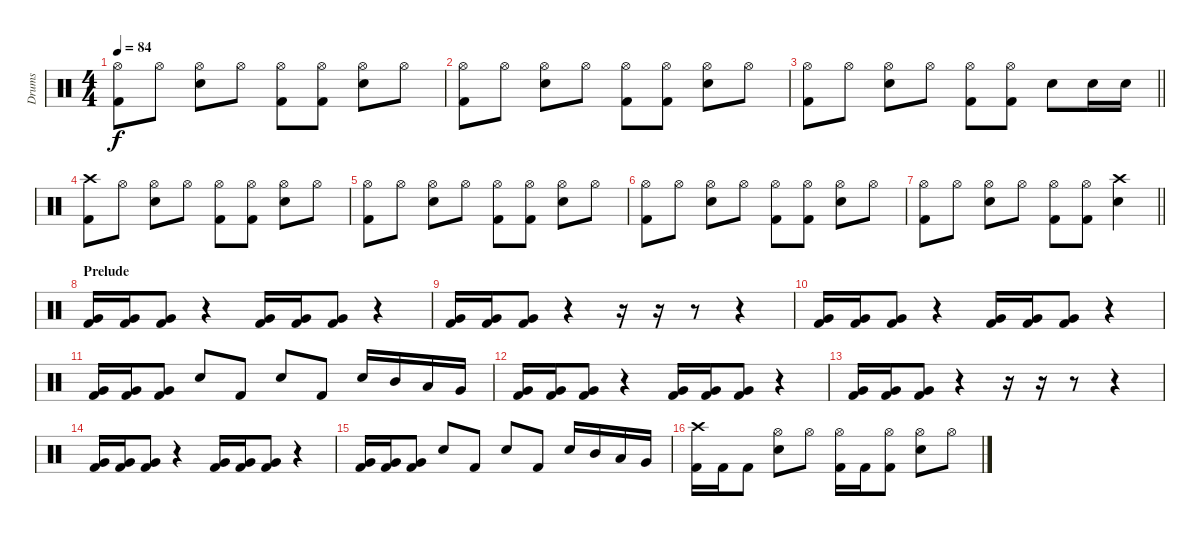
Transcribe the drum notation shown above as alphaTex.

\track ("Drums" "Drums") {instrument percussion}
\staff {score}
\articulation defaults
\ts (4 4)
\tempo 84
\clef neutral
\ks c
("Hi-Hat (open)" "Kick (hit) 2").8{dy f} "Hi-Hat (open)".8 ("Hi-Hat (open)" "Snare (hit) 2").8 "Hi-Hat (open)".8 ("Hi-Hat (open)" "Kick (hit) 2").8 ("Hi-Hat (open)" "Kick (hit) 2").8 ("Hi-Hat (open)" "Snare (hit) 2").8 "Hi-Hat (open)".8 |
("Hi-Hat (open)" "Kick (hit) 2").8 "Hi-Hat (open)".8 ("Hi-Hat (open)" "Snare (hit) 2").8 "Hi-Hat (open)".8 ("Hi-Hat (open)" "Kick (hit) 2").8 ("Hi-Hat (open)" "Kick (hit) 2").8 ("Hi-Hat (open)" "Snare (hit) 2").8 "Hi-Hat (open)".8 |
\barLineRight lightlight
("Hi-Hat (open)" "Kick (hit) 2").8 "Hi-Hat (open)".8 ("Hi-Hat (open)" "Snare (hit) 2").8 "Hi-Hat (open)".8 ("Hi-Hat (open)" "Kick (hit) 2").8 ("Hi-Hat (open)" "Kick (hit) 2").8 "Snare (hit) 2".8 "Snare (hit) 2".16 "Snare (hit) 2".16 |
("Crash high (hit)" "Kick (hit) 2").8 "Hi-Hat (open)".8 ("Hi-Hat (open)" "Snare (hit) 2").8 "Hi-Hat (open)".8 ("Hi-Hat (open)" "Kick (hit) 2").8 ("Hi-Hat (open)" "Kick (hit) 2").8 ("Hi-Hat (open)" "Snare (hit) 2").8 "Hi-Hat (open)".8 |
("Hi-Hat (open)" "Kick (hit) 2").8 "Hi-Hat (open)".8 ("Hi-Hat (open)" "Snare (hit) 2").8 "Hi-Hat (open)".8 ("Hi-Hat (open)" "Kick (hit) 2").8 ("Hi-Hat (open)" "Kick (hit) 2").8 ("Hi-Hat (open)" "Snare (hit) 2").8 "Hi-Hat (open)".8 |
("Hi-Hat (open)" "Kick (hit) 2").8 "Hi-Hat (open)".8 ("Hi-Hat (open)" "Snare (hit) 2").8 "Hi-Hat (open)".8 ("Hi-Hat (open)" "Kick (hit) 2").8 ("Hi-Hat (open)" "Kick (hit) 2").8 ("Hi-Hat (open)" "Snare (hit) 2").8 "Hi-Hat (open)".8 |
\barLineRight lightlight
("Hi-Hat (open)" "Kick (hit) 2").8 "Hi-Hat (open)".8 ("Hi-Hat (open)" "Snare (hit) 2").8 "Hi-Hat (open)".8 ("Hi-Hat (open)" "Kick (hit) 2").8 ("Hi-Hat (open)" "Kick (hit) 2").8 ("Crash high (hit)" "Snare (hit) 2").4 |
\section ("" "Prelude")
("Very Low Tom (hit)" "Kick (hit) 2").16 ("Very Low Tom (hit)" "Kick (hit) 2").16 ("Very Low Tom (hit)" "Kick (hit) 2").8 r.4 ("Very Low Tom (hit)" "Kick (hit) 2").16 ("Very Low Tom (hit)" "Kick (hit) 2").16 ("Very Low Tom (hit)" "Kick (hit) 2").8 r.4 |
("Very Low Tom (hit)" "Kick (hit) 2").16 ("Very Low Tom (hit)" "Kick (hit) 2").16 ("Very Low Tom (hit)" "Kick (hit) 2").8 r.4 r.16 r.16 r.8 r.4 |
("Very Low Tom (hit)" "Kick (hit) 2").16 ("Very Low Tom (hit)" "Kick (hit) 2").16 ("Very Low Tom (hit)" "Kick (hit) 2").8 r.4 ("Very Low Tom (hit)" "Kick (hit) 2").16 ("Very Low Tom (hit)" "Kick (hit) 2").16 ("Very Low Tom (hit)" "Kick (hit) 2").8 r.4 |
("Very Low Tom (hit)" "Kick (hit) 2").16 ("Very Low Tom (hit)" "Kick (hit) 2").16 ("Very Low Tom (hit)" "Kick (hit) 2").8 "Snare (hit) 2".8 "Kick (hit) 2".8 "Snare (hit) 2".8 "Kick (hit) 2".8 "Snare (hit) 2".16 "Mid Tom (hit)".16 "Low Tom (hit)".16 "Very Low Tom (hit)".16 |
("Very Low Tom (hit)" "Kick (hit) 2").16 ("Very Low Tom (hit)" "Kick (hit) 2").16 ("Very Low Tom (hit)" "Kick (hit) 2").8 r.4 ("Very Low Tom (hit)" "Kick (hit) 2").16 ("Very Low Tom (hit)" "Kick (hit) 2").16 ("Very Low Tom (hit)" "Kick (hit) 2").8 r.4 |
("Very Low Tom (hit)" "Kick (hit) 2").16 ("Very Low Tom (hit)" "Kick (hit) 2").16 ("Very Low Tom (hit)" "Kick (hit) 2").8 r.4 r.16 r.16 r.8 r.4 |
("Very Low Tom (hit)" "Kick (hit) 2").16 ("Very Low Tom (hit)" "Kick (hit) 2").16 ("Very Low Tom (hit)" "Kick (hit) 2").8 r.4 ("Very Low Tom (hit)" "Kick (hit) 2").16 ("Very Low Tom (hit)" "Kick (hit) 2").16 ("Very Low Tom (hit)" "Kick (hit) 2").8 r.4 |
("Very Low Tom (hit)" "Kick (hit) 2").16 ("Very Low Tom (hit)" "Kick (hit) 2").16 ("Very Low Tom (hit)" "Kick (hit) 2").8 "Snare (hit) 2".8 "Kick (hit) 2".8 "Snare (hit) 2".8 "Kick (hit) 2".8 "Snare (hit) 2".16 "Mid Tom (hit)".16 "Low Tom (hit)".16 "Very Low Tom (hit)".16 |
("Crash high (hit)" "Kick (hit) 2").16 "Kick (hit) 2".16 "Kick (hit) 2".8 ("Hi-Hat (open)" "Snare (hit) 2").8 "Hi-Hat (open)".8 ("Hi-Hat (open)" "Kick (hit) 2").16 "Kick (hit) 2".16 ("Hi-Hat (open)" "Kick (hit) 2").8 ("Hi-Hat (open)" "Snare (hit) 2").8 "Hi-Hat (open)".8
